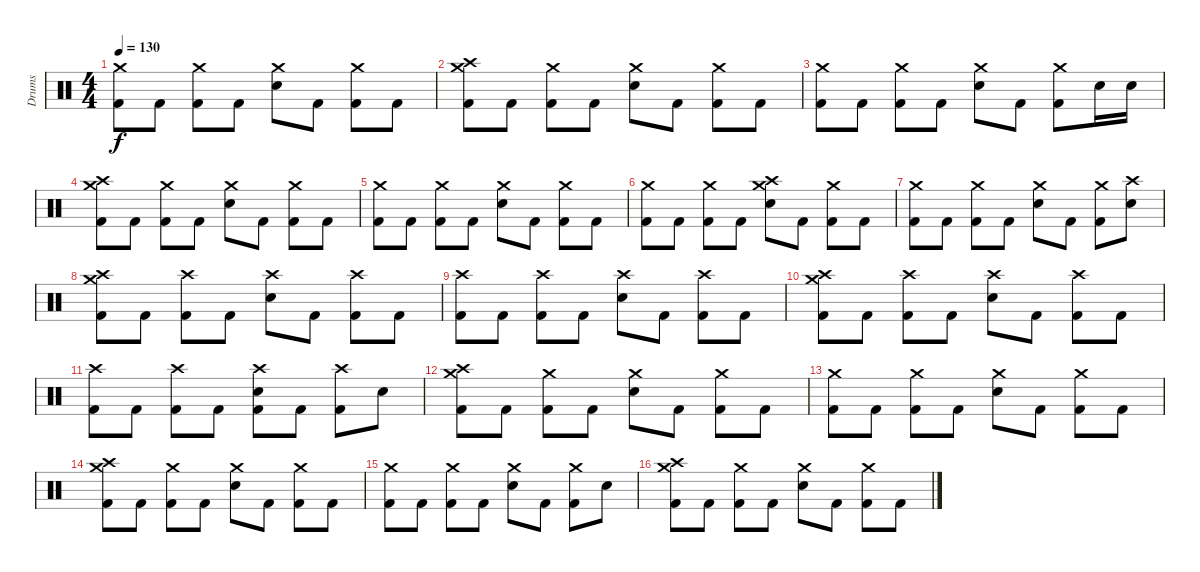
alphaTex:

\track ("Drums" "Drums") {instrument percussion}
\staff {score}
\articulation defaults
\ts (4 4)
\tempo 130
\clef neutral
\ks c
("Crash medium (hit)" "Kick (hit) 2").8{dy f} "Kick (hit) 2".8 ("Crash medium (hit)" "Kick (hit) 2").8 "Kick (hit) 2".8 ("Crash medium (hit)" "Snare (hit) 2").8 "Kick (hit) 2".8 ("Crash medium (hit)" "Kick (hit) 2").8 "Kick (hit) 2".8 |
("Crash high (hit)" "Crash medium (hit)" "Kick (hit) 2").8 "Kick (hit) 2".8 ("Crash medium (hit)" "Kick (hit) 2").8 "Kick (hit) 2".8 ("Crash medium (hit)" "Snare (hit) 2").8 "Kick (hit) 2".8 ("Crash medium (hit)" "Kick (hit) 2").8 "Kick (hit) 2".8 |
("Crash medium (hit)" "Kick (hit) 2").8 "Kick (hit) 2".8 ("Crash medium (hit)" "Kick (hit) 2").8 "Kick (hit) 2".8 ("Crash medium (hit)" "Snare (hit) 2").8 "Kick (hit) 2".8 ("Crash medium (hit)" "Kick (hit) 2").8 "Snare (hit) 2".16 "Snare (hit) 2".16 |
("Crash high (hit)" "Crash medium (hit)" "Kick (hit) 2").8 "Kick (hit) 2".8 ("Crash medium (hit)" "Kick (hit) 2").8 "Kick (hit) 2".8 ("Crash medium (hit)" "Snare (hit) 2").8 "Kick (hit) 2".8 ("Crash medium (hit)" "Kick (hit) 2").8 "Kick (hit) 2".8 |
("Crash medium (hit)" "Kick (hit) 2").8 "Kick (hit) 2".8 ("Crash medium (hit)" "Kick (hit) 2").8 "Kick (hit) 2".8 ("Crash medium (hit)" "Snare (hit) 2").8 "Kick (hit) 2".8 ("Crash medium (hit)" "Kick (hit) 2").8 "Kick (hit) 2".8 |
("Crash medium (hit)" "Kick (hit) 2").8 "Kick (hit) 2".8 ("Crash medium (hit)" "Kick (hit) 2").8 "Kick (hit) 2".8 ("Crash high (hit)" "Crash medium (hit)" "Snare (hit) 2").8 "Kick (hit) 2".8 ("Crash medium (hit)" "Kick (hit) 2").8 "Kick (hit) 2".8 |
("Crash medium (hit)" "Kick (hit) 2").8 "Kick (hit) 2".8 ("Crash medium (hit)" "Kick (hit) 2").8 "Kick (hit) 2".8 ("Crash medium (hit)" "Snare (hit) 2").8 "Kick (hit) 2".8 ("Crash medium (hit)" "Kick (hit) 2").8 ("Crash high (hit)" "Snare (hit) 2").8 |
("Crash high (hit)" "Crash medium (hit)" "Kick (hit) 2").8 "Kick (hit) 2".8 ("Crash high (hit)" "Kick (hit) 2").8 "Kick (hit) 2".8 ("Crash high (hit)" "Snare (hit) 2").8 "Kick (hit) 2".8 ("Crash high (hit)" "Kick (hit) 2").8 "Kick (hit) 2".8 |
("Crash high (hit)" "Kick (hit) 2").8 "Kick (hit) 2".8 ("Crash high (hit)" "Kick (hit) 2").8 "Kick (hit) 2".8 ("Crash high (hit)" "Snare (hit) 2").8 "Kick (hit) 2".8 ("Crash high (hit)" "Kick (hit) 2").8 "Kick (hit) 2".8 |
("Crash medium (hit)" "Crash high (hit)" "Kick (hit) 2").8 "Kick (hit) 2".8 ("Crash high (hit)" "Kick (hit) 2").8 "Kick (hit) 2".8 ("Crash high (hit)" "Snare (hit) 2").8 "Kick (hit) 2".8 ("Crash high (hit)" "Kick (hit) 2").8 "Kick (hit) 2".8 |
("Crash high (hit)" "Kick (hit) 2").8 "Kick (hit) 2".8 ("Crash high (hit)" "Kick (hit) 2").8 "Kick (hit) 2".8 ("Crash high (hit)" "Snare (hit) 2" "Kick (hit) 2").8 "Kick (hit) 2".8 ("Crash high (hit)" "Kick (hit) 2").8 "Snare (hit) 2".8 |
("Crash high (hit)" "Crash medium (hit)" "Kick (hit) 2").8 "Kick (hit) 2".8 ("Crash medium (hit)" "Kick (hit) 2").8 "Kick (hit) 2".8 ("Crash medium (hit)" "Snare (hit) 2").8 "Kick (hit) 2".8 ("Crash medium (hit)" "Kick (hit) 2").8 "Kick (hit) 2".8 |
("Crash medium (hit)" "Kick (hit) 2").8 "Kick (hit) 2".8 ("Crash medium (hit)" "Kick (hit) 2").8 "Kick (hit) 2".8 ("Crash medium (hit)" "Snare (hit) 2").8 "Kick (hit) 2".8 ("Crash medium (hit)" "Kick (hit) 2").8 "Kick (hit) 2".8 |
("Crash high (hit)" "Crash medium (hit)" "Kick (hit) 2").8 "Kick (hit) 2".8 ("Crash medium (hit)" "Kick (hit) 2").8 "Kick (hit) 2".8 ("Crash medium (hit)" "Snare (hit) 2").8 "Kick (hit) 2".8 ("Crash medium (hit)" "Kick (hit) 2").8 "Kick (hit) 2".8 |
("Crash medium (hit)" "Kick (hit) 2").8 "Kick (hit) 2".8 ("Crash medium (hit)" "Kick (hit) 2").8 "Kick (hit) 2".8 ("Crash medium (hit)" "Snare (hit) 2").8 "Kick (hit) 2".8 ("Crash medium (hit)" "Kick (hit) 2").8 "Snare (hit) 2".8 |
("Crash high (hit)" "Crash medium (hit)" "Kick (hit) 2").8 "Kick (hit) 2".8 ("Crash medium (hit)" "Kick (hit) 2").8 "Kick (hit) 2".8 ("Crash medium (hit)" "Snare (hit) 2").8 "Kick (hit) 2".8 ("Crash medium (hit)" "Kick (hit) 2").8 "Kick (hit) 2".8
